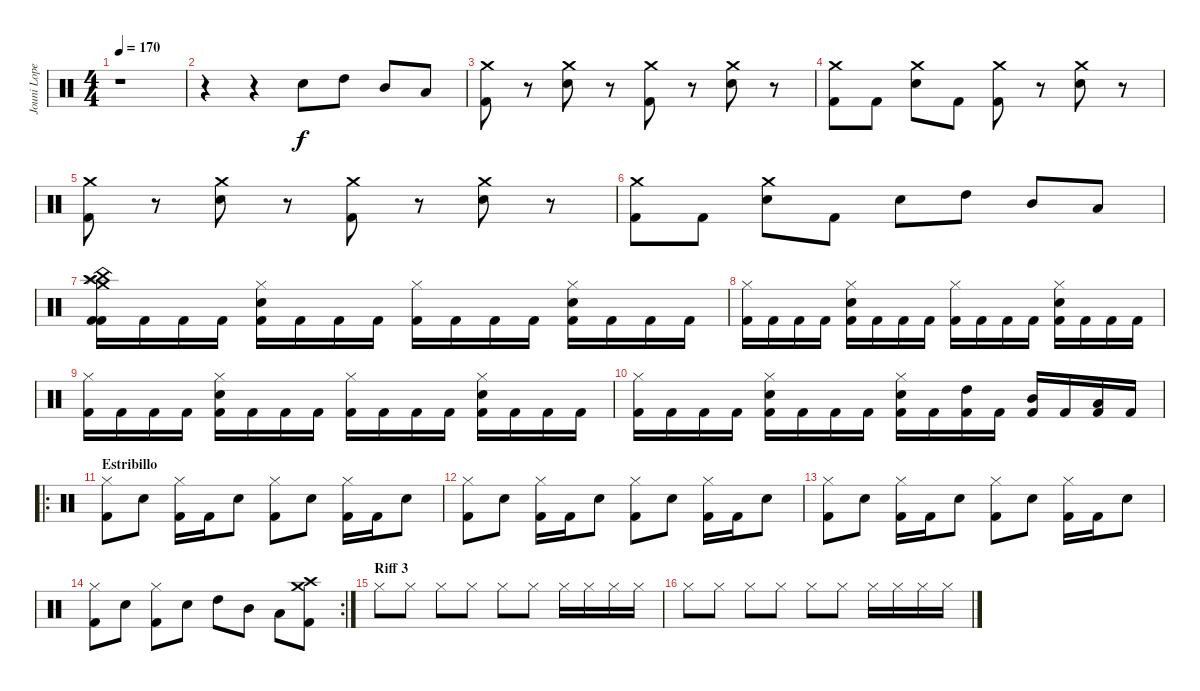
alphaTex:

\track ("Jouni Lopez (Bateria) 17 años" "Jouni Lope") {instrument percussion}
\staff {score}
\articulation defaults
\ts (4 4)
\tempo 170
\clef neutral
\ks c
r.1{dy f} |
r.4 r.4 "Snare (hit) 2".8 "High Tom (hit)".8 "Mid Tom (hit)".8 "Low Tom (hit)".8 |
("Crash medium (hit)" "Kick (hit) 2").8 r.8 ("Crash medium (hit)" "Snare (hit) 2").8 r.8 ("Crash medium (hit)" "Kick (hit) 2").8 r.8 ("Crash medium (hit)" "Snare (hit) 2").8 r.8 |
("Crash medium (hit)" "Kick (hit) 2").8 "Kick (hit) 2".8 ("Crash medium (hit)" "Snare (hit) 2").8 "Kick (hit) 2".8 ("Crash medium (hit)" "Kick (hit) 2").8 r.8 ("Crash medium (hit)" "Snare (hit) 2").8 r.8 |
("Crash medium (hit)" "Kick (hit) 2").8 r.8 ("Crash medium (hit)" "Snare (hit) 2").8 r.8 ("Crash medium (hit)" "Kick (hit) 2").8 r.8 ("Crash medium (hit)" "Snare (hit) 2").8 r.8 |
("Crash medium (hit)" "Kick (hit) 2").8 "Kick (hit) 2".8 ("Crash medium (hit)" "Snare (hit) 2").8 "Kick (hit) 2".8 "Snare (hit) 2".8 "High Tom (hit)".8 "Mid Tom (hit)".8 "Low Tom (hit)".8 |
("Kick (hit) 2" "Crash medium (hit)" "Splash (hit)" "China (hit)" "Crash high (hit)" "Kick (hit) 2").16 "Kick (hit) 2".16 "Kick (hit) 2".16 "Kick (hit) 2".16 ("Kick (hit) 2" "Snare (hit) 2" "Hi-Hat (closed)").16 "Kick (hit) 2".16 "Kick (hit) 2".16 "Kick (hit) 2".16 ("Kick (hit) 2" "Hi-Hat (closed)").16 "Kick (hit) 2".16 "Kick (hit) 2".16 "Kick (hit) 2".16 ("Kick (hit) 2" "Snare (hit) 2" "Hi-Hat (closed)").16 "Kick (hit) 2".16 "Kick (hit) 2".16 "Kick (hit) 2".16 |
("Kick (hit) 2" "Hi-Hat (closed)").16 "Kick (hit) 2".16 "Kick (hit) 2".16 "Kick (hit) 2".16 ("Kick (hit) 2" "Snare (hit) 2" "Hi-Hat (closed)").16 "Kick (hit) 2".16 "Kick (hit) 2".16 "Kick (hit) 2".16 ("Kick (hit) 2" "Hi-Hat (closed)").16 "Kick (hit) 2".16 "Kick (hit) 2".16 "Kick (hit) 2".16 ("Kick (hit) 2" "Snare (hit) 2" "Hi-Hat (closed)").16 "Kick (hit) 2".16 "Kick (hit) 2".16 "Kick (hit) 2".16 |
("Kick (hit) 2" "Hi-Hat (closed)").16 "Kick (hit) 2".16 "Kick (hit) 2".16 "Kick (hit) 2".16 ("Kick (hit) 2" "Snare (hit) 2" "Hi-Hat (closed)").16 "Kick (hit) 2".16 "Kick (hit) 2".16 "Kick (hit) 2".16 ("Kick (hit) 2" "Hi-Hat (closed)").16 "Kick (hit) 2".16 "Kick (hit) 2".16 "Kick (hit) 2".16 ("Kick (hit) 2" "Snare (hit) 2" "Hi-Hat (closed)").16 "Kick (hit) 2".16 "Kick (hit) 2".16 "Kick (hit) 2".16 |
("Kick (hit) 2" "Hi-Hat (closed)").16 "Kick (hit) 2".16 "Kick (hit) 2".16 "Kick (hit) 2".16 ("Kick (hit) 2" "Snare (hit) 2" "Hi-Hat (closed)").16 "Kick (hit) 2".16 "Kick (hit) 2".16 "Kick (hit) 2".16 ("Kick (hit) 2" "Snare (hit) 2" "Hi-Hat (closed)").16 "Kick (hit) 2".16 ("Kick (hit) 2" "High Tom (hit)").16 "Kick (hit) 2".16 ("Kick (hit) 2" "Mid Tom (hit)").16 "Kick (hit) 2".16 ("Kick (hit) 2" "Low Tom (hit)").16 "Kick (hit) 2".16 |
\ro
\section ("" "Estribillo")
("Kick (hit) 2" "Hi-Hat (closed)").8 "Snare (hit) 2".8 ("Kick (hit) 2" "Hi-Hat (closed)").16 "Kick (hit) 2".16 "Snare (hit) 2".8 ("Kick (hit) 2" "Hi-Hat (closed)").8 "Snare (hit) 2".8 ("Kick (hit) 2" "Hi-Hat (closed)").16 "Kick (hit) 2".16 "Snare (hit) 2".8 |
("Kick (hit) 2" "Hi-Hat (closed)").8 "Snare (hit) 2".8 ("Kick (hit) 2" "Hi-Hat (closed)").16 "Kick (hit) 2".16 "Snare (hit) 2".8 ("Kick (hit) 2" "Hi-Hat (closed)").8 "Snare (hit) 2".8 ("Kick (hit) 2" "Hi-Hat (closed)").16 "Kick (hit) 2".16 "Snare (hit) 2".8 |
("Kick (hit) 2" "Hi-Hat (closed)").8 "Snare (hit) 2".8 ("Kick (hit) 2" "Hi-Hat (closed)").16 "Kick (hit) 2".16 "Snare (hit) 2".8 ("Kick (hit) 2" "Hi-Hat (closed)").8 "Snare (hit) 2".8 ("Kick (hit) 2" "Hi-Hat (closed)").16 "Kick (hit) 2".16 "Snare (hit) 2".8 |
\rc 2
("Kick (hit) 2" "Hi-Hat (closed)").8 "Snare (hit) 2".8 ("Kick (hit) 2" "Hi-Hat (closed)").8 "Snare (hit) 2".8 "High Tom (hit)".8 "Mid Tom (hit)".8 "Low Tom (hit)".8 ("Kick (hit) 2" "Crash medium (hit)" "Crash high (hit)").8 |
\section ("" "Riff 3")
"Hi-Hat (closed)".8 "Hi-Hat (closed)".8 "Hi-Hat (closed)".8 "Hi-Hat (closed)".8 "Hi-Hat (closed)".8 "Hi-Hat (closed)".8 "Hi-Hat (closed)".16 "Hi-Hat (closed)".16 "Hi-Hat (closed)".16 "Hi-Hat (closed)".16 |
"Hi-Hat (closed)".8 "Hi-Hat (closed)".8 "Hi-Hat (closed)".8 "Hi-Hat (closed)".8 "Hi-Hat (closed)".8 "Hi-Hat (closed)".8 "Hi-Hat (closed)".16 "Hi-Hat (closed)".16 "Hi-Hat (closed)".16 "Hi-Hat (closed)".16
